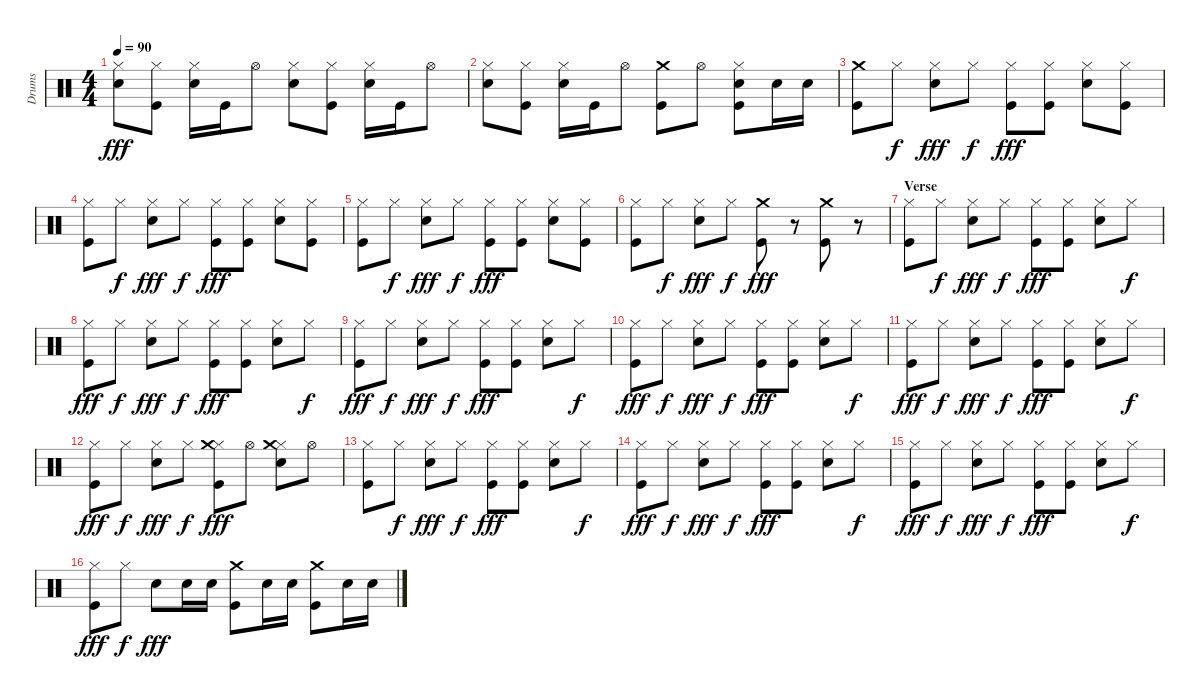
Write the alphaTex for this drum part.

\track ("Drums" "Drums") {instrument percussion}
\staff {score}
\articulation defaults
\ts (4 4)
\tempo 90
\clef neutral
\ks c
("Hi-Hat (closed)" "Snare (hit) 2").8{dy fff} ("Hi-Hat (closed)" "Kick (hit)").8 ("Hi-Hat (closed)" "Snare (hit) 2").16 "Kick (hit)".16 "Hi-Hat (open)".8 ("Hi-Hat (closed)" "Snare (hit) 2").8 ("Hi-Hat (closed)" "Kick (hit)").8 ("Hi-Hat (closed)" "Snare (hit) 2").16 "Kick (hit)".16 "Hi-Hat (open)".8 |
("Hi-Hat (closed)" "Snare (hit) 2").8 ("Hi-Hat (closed)" "Kick (hit)").8 ("Hi-Hat (closed)" "Snare (hit) 2").16 "Kick (hit)".16 "Hi-Hat (open)".8 ("Crash medium (hit)" "Kick (hit)").8 "Hi-Hat (open)".8 ("Hi-Hat (closed)" "Snare (hit) 2" "Kick (hit)").8 "Snare (hit) 2".16 "Snare (hit) 2".16 |
("Crash medium (hit)" "Kick (hit)").8 "Hi-Hat (closed)".8{dy f} ("Hi-Hat (closed)" "Snare (hit) 2").8{dy fff} "Hi-Hat (closed)".8{dy f} ("Hi-Hat (closed)" "Kick (hit)").8{dy fff} ("Hi-Hat (closed)" "Kick (hit)").8 ("Hi-Hat (closed)" "Snare (hit) 2").8 ("Hi-Hat (closed)" "Kick (hit)").8 |
("Hi-Hat (closed)" "Kick (hit)").8 "Hi-Hat (closed)".8{dy f} ("Hi-Hat (closed)" "Snare (hit) 2").8{dy fff} "Hi-Hat (closed)".8{dy f} ("Hi-Hat (closed)" "Kick (hit)").8{dy fff} ("Hi-Hat (closed)" "Kick (hit)").8 ("Hi-Hat (closed)" "Snare (hit) 2").8 ("Hi-Hat (closed)" "Kick (hit)").8 |
("Hi-Hat (closed)" "Kick (hit)").8 "Hi-Hat (closed)".8{dy f} ("Hi-Hat (closed)" "Snare (hit) 2").8{dy fff} "Hi-Hat (closed)".8{dy f} ("Hi-Hat (closed)" "Kick (hit)").8{dy fff} ("Hi-Hat (closed)" "Kick (hit)").8 ("Hi-Hat (closed)" "Snare (hit) 2").8 ("Hi-Hat (closed)" "Kick (hit)").8 |
("Hi-Hat (closed)" "Kick (hit)").8 "Hi-Hat (closed)".8{dy f} ("Hi-Hat (closed)" "Snare (hit) 2").8{dy fff} "Hi-Hat (closed)".8{dy f} ("Crash medium (hit)" "Kick (hit)").8{dy fff} r.8 ("Crash medium (hit)" "Kick (hit)").8 r.8 |
\section ("" "Verse")
("Hi-Hat (closed)" "Kick (hit)").8 "Hi-Hat (closed)".8{dy f} ("Hi-Hat (closed)" "Snare (hit) 2").8{dy fff} "Hi-Hat (closed)".8{dy f} ("Hi-Hat (closed)" "Kick (hit)").8{dy fff} ("Hi-Hat (closed)" "Kick (hit)").8 ("Hi-Hat (closed)" "Snare (hit) 2").8 "Hi-Hat (closed)".8{dy f} |
("Hi-Hat (closed)" "Kick (hit)").8{dy fff} "Hi-Hat (closed)".8{dy f} ("Hi-Hat (closed)" "Snare (hit) 2").8{dy fff} "Hi-Hat (closed)".8{dy f} ("Hi-Hat (closed)" "Kick (hit)").8{dy fff} ("Hi-Hat (closed)" "Kick (hit)").8 ("Hi-Hat (closed)" "Snare (hit) 2").8 "Hi-Hat (closed)".8{dy f} |
("Hi-Hat (closed)" "Kick (hit)").8{dy fff} "Hi-Hat (closed)".8{dy f} ("Hi-Hat (closed)" "Snare (hit) 2").8{dy fff} "Hi-Hat (closed)".8{dy f} ("Hi-Hat (closed)" "Kick (hit)").8{dy fff} ("Hi-Hat (closed)" "Kick (hit)").8 ("Hi-Hat (closed)" "Snare (hit) 2").8 "Hi-Hat (closed)".8{dy f} |
("Hi-Hat (closed)" "Kick (hit)").8{dy fff} "Hi-Hat (closed)".8{dy f} ("Hi-Hat (closed)" "Snare (hit) 2").8{dy fff} "Hi-Hat (closed)".8{dy f} ("Hi-Hat (closed)" "Kick (hit)").8{dy fff} ("Hi-Hat (closed)" "Kick (hit)").8 ("Hi-Hat (closed)" "Snare (hit) 2").8 "Hi-Hat (closed)".8{dy f} |
("Hi-Hat (closed)" "Kick (hit)").8{dy fff} "Hi-Hat (closed)".8{dy f} ("Hi-Hat (closed)" "Snare (hit) 2").8{dy fff} "Hi-Hat (closed)".8{dy f} ("Hi-Hat (closed)" "Kick (hit)").8{dy fff} ("Hi-Hat (closed)" "Kick (hit)").8 ("Hi-Hat (closed)" "Snare (hit) 2").8 "Hi-Hat (closed)".8{dy f} |
("Hi-Hat (closed)" "Kick (hit)").8{dy fff} "Hi-Hat (closed)".8{dy f} ("Hi-Hat (closed)" "Snare (hit) 2").8{dy fff} "Hi-Hat (closed)".8{dy f} ("Hi-Hat (closed)" "Crash medium (hit)" "Kick (hit)").8{dy fff} "Hi-Hat (open)".8 ("Hi-Hat (closed)" "Crash medium (hit)" "Snare (hit) 2").8 "Hi-Hat (open)".8 |
("Hi-Hat (closed)" "Kick (hit)").8 "Hi-Hat (closed)".8{dy f} ("Hi-Hat (closed)" "Snare (hit) 2").8{dy fff} "Hi-Hat (closed)".8{dy f} ("Hi-Hat (closed)" "Kick (hit)").8{dy fff} ("Hi-Hat (closed)" "Kick (hit)").8 ("Hi-Hat (closed)" "Snare (hit) 2").8 "Hi-Hat (closed)".8{dy f} |
("Hi-Hat (closed)" "Kick (hit)").8{dy fff} "Hi-Hat (closed)".8{dy f} ("Hi-Hat (closed)" "Snare (hit) 2").8{dy fff} "Hi-Hat (closed)".8{dy f} ("Hi-Hat (closed)" "Kick (hit)").8{dy fff} ("Hi-Hat (closed)" "Kick (hit)").8 ("Hi-Hat (closed)" "Snare (hit) 2").8 "Hi-Hat (closed)".8{dy f} |
("Hi-Hat (closed)" "Kick (hit)").8{dy fff} "Hi-Hat (closed)".8{dy f} ("Hi-Hat (closed)" "Snare (hit) 2").8{dy fff} "Hi-Hat (closed)".8{dy f} ("Hi-Hat (closed)" "Kick (hit)").8{dy fff} ("Hi-Hat (closed)" "Kick (hit)").8 ("Hi-Hat (closed)" "Snare (hit) 2").8 "Hi-Hat (closed)".8{dy f} |
("Hi-Hat (closed)" "Kick (hit)").8{dy fff} "Hi-Hat (closed)".8{dy f} "Snare (hit) 2".8{dy fff} "Snare (hit) 2".16 "Snare (hit) 2".16 ("Crash medium (hit)" "Kick (hit)").8 "Snare (hit) 2".16 "Snare (hit) 2".16 ("Crash medium (hit)" "Kick (hit)").8 "Snare (hit) 2".16 "Snare (hit) 2".16
